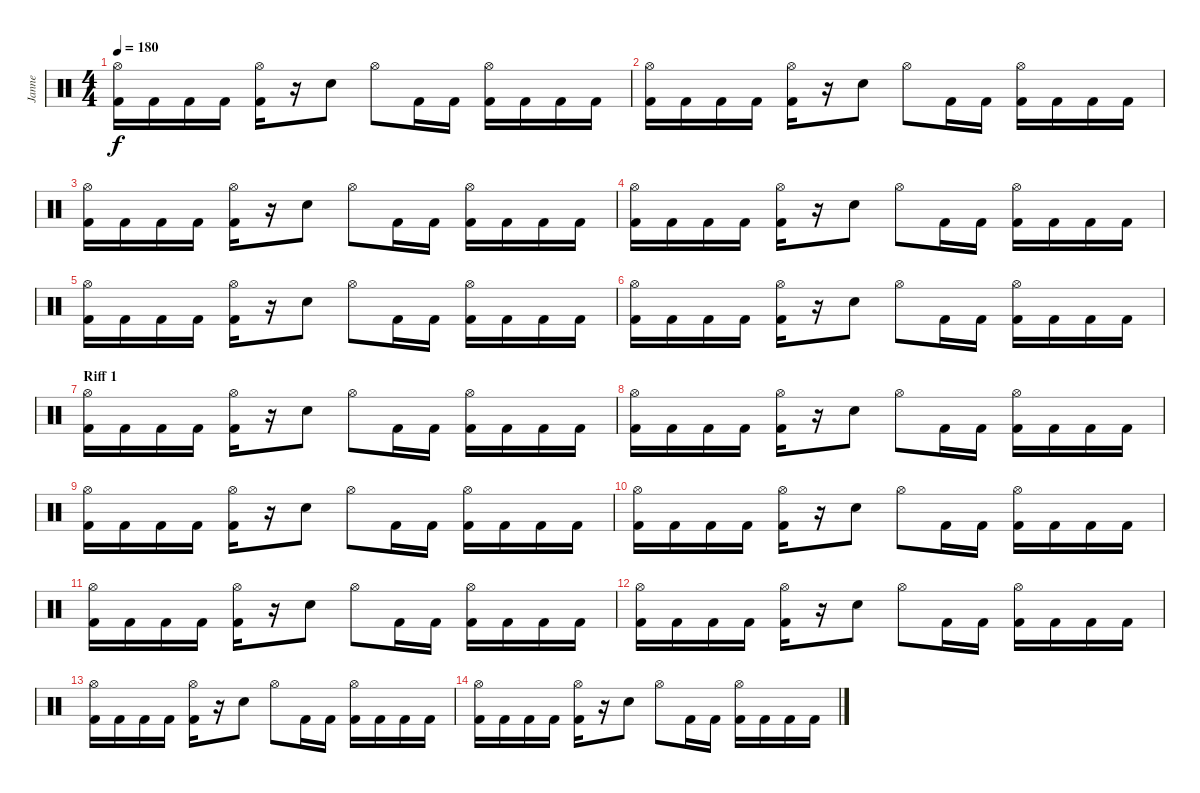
\track ("Janne" "Janne") {instrument percussion}
\staff {score}
\articulation defaults
\ts (4 4)
\tempo 180
\clef neutral
\ks c
("Hi-Hat (open)" "Kick (hit) 2").16{dy f} "Kick (hit) 2".16 "Kick (hit) 2".16 "Kick (hit) 2".16 ("Hi-Hat (open)" "Kick (hit) 2").16 r.16 "Electric Snare (hit)".8 "Hi-Hat (open)".8 "Kick (hit) 2".16 "Kick (hit) 2".16 ("Hi-Hat (open)" "Kick (hit) 2").16 "Kick (hit) 2".16 "Kick (hit) 2".16 "Kick (hit) 2".16 |
("Hi-Hat (open)" "Kick (hit) 2").16 "Kick (hit) 2".16 "Kick (hit) 2".16 "Kick (hit) 2".16 ("Hi-Hat (open)" "Kick (hit) 2").16 r.16 "Electric Snare (hit)".8 "Hi-Hat (open)".8 "Kick (hit) 2".16 "Kick (hit) 2".16 ("Hi-Hat (open)" "Kick (hit) 2").16 "Kick (hit) 2".16 "Kick (hit) 2".16 "Kick (hit) 2".16 |
("Hi-Hat (open)" "Kick (hit) 2").16 "Kick (hit) 2".16 "Kick (hit) 2".16 "Kick (hit) 2".16 ("Hi-Hat (open)" "Kick (hit) 2").16 r.16 "Electric Snare (hit)".8 "Hi-Hat (open)".8 "Kick (hit) 2".16 "Kick (hit) 2".16 ("Hi-Hat (open)" "Kick (hit) 2").16 "Kick (hit) 2".16 "Kick (hit) 2".16 "Kick (hit) 2".16 |
("Hi-Hat (open)" "Kick (hit) 2").16 "Kick (hit) 2".16 "Kick (hit) 2".16 "Kick (hit) 2".16 ("Hi-Hat (open)" "Kick (hit) 2").16 r.16 "Electric Snare (hit)".8 "Hi-Hat (open)".8 "Kick (hit) 2".16 "Kick (hit) 2".16 ("Hi-Hat (open)" "Kick (hit) 2").16 "Kick (hit) 2".16 "Kick (hit) 2".16 "Kick (hit) 2".16 |
("Hi-Hat (open)" "Kick (hit) 2").16 "Kick (hit) 2".16 "Kick (hit) 2".16 "Kick (hit) 2".16 ("Hi-Hat (open)" "Kick (hit) 2").16 r.16 "Electric Snare (hit)".8 "Hi-Hat (open)".8 "Kick (hit) 2".16 "Kick (hit) 2".16 ("Hi-Hat (open)" "Kick (hit) 2").16 "Kick (hit) 2".16 "Kick (hit) 2".16 "Kick (hit) 2".16 |
("Hi-Hat (open)" "Kick (hit) 2").16 "Kick (hit) 2".16 "Kick (hit) 2".16 "Kick (hit) 2".16 ("Hi-Hat (open)" "Kick (hit) 2").16 r.16 "Electric Snare (hit)".8 "Hi-Hat (open)".8 "Kick (hit) 2".16 "Kick (hit) 2".16 ("Hi-Hat (open)" "Kick (hit) 2").16 "Kick (hit) 2".16 "Kick (hit) 2".16 "Kick (hit) 2".16 |
\section ("" "Riff 1")
("Hi-Hat (open)" "Kick (hit) 2").16 "Kick (hit) 2".16 "Kick (hit) 2".16 "Kick (hit) 2".16 ("Hi-Hat (open)" "Kick (hit) 2").16 r.16 "Electric Snare (hit)".8 "Hi-Hat (open)".8 "Kick (hit) 2".16 "Kick (hit) 2".16 ("Hi-Hat (open)" "Kick (hit) 2").16 "Kick (hit) 2".16 "Kick (hit) 2".16 "Kick (hit) 2".16 |
("Hi-Hat (open)" "Kick (hit) 2").16 "Kick (hit) 2".16 "Kick (hit) 2".16 "Kick (hit) 2".16 ("Hi-Hat (open)" "Kick (hit) 2").16 r.16 "Electric Snare (hit)".8 "Hi-Hat (open)".8 "Kick (hit) 2".16 "Kick (hit) 2".16 ("Hi-Hat (open)" "Kick (hit) 2").16 "Kick (hit) 2".16 "Kick (hit) 2".16 "Kick (hit) 2".16 |
("Hi-Hat (open)" "Kick (hit) 2").16 "Kick (hit) 2".16 "Kick (hit) 2".16 "Kick (hit) 2".16 ("Hi-Hat (open)" "Kick (hit) 2").16 r.16 "Electric Snare (hit)".8 "Hi-Hat (open)".8 "Kick (hit) 2".16 "Kick (hit) 2".16 ("Hi-Hat (open)" "Kick (hit) 2").16 "Kick (hit) 2".16 "Kick (hit) 2".16 "Kick (hit) 2".16 |
("Hi-Hat (open)" "Kick (hit) 2").16 "Kick (hit) 2".16 "Kick (hit) 2".16 "Kick (hit) 2".16 ("Hi-Hat (open)" "Kick (hit) 2").16 r.16 "Electric Snare (hit)".8 "Hi-Hat (open)".8 "Kick (hit) 2".16 "Kick (hit) 2".16 ("Hi-Hat (open)" "Kick (hit) 2").16 "Kick (hit) 2".16 "Kick (hit) 2".16 "Kick (hit) 2".16 |
("Hi-Hat (open)" "Kick (hit) 2").16 "Kick (hit) 2".16 "Kick (hit) 2".16 "Kick (hit) 2".16 ("Hi-Hat (open)" "Kick (hit) 2").16 r.16 "Electric Snare (hit)".8 "Hi-Hat (open)".8 "Kick (hit) 2".16 "Kick (hit) 2".16 ("Hi-Hat (open)" "Kick (hit) 2").16 "Kick (hit) 2".16 "Kick (hit) 2".16 "Kick (hit) 2".16 |
("Hi-Hat (open)" "Kick (hit) 2").16 "Kick (hit) 2".16 "Kick (hit) 2".16 "Kick (hit) 2".16 ("Hi-Hat (open)" "Kick (hit) 2").16 r.16 "Electric Snare (hit)".8 "Hi-Hat (open)".8 "Kick (hit) 2".16 "Kick (hit) 2".16 ("Hi-Hat (open)" "Kick (hit) 2").16 "Kick (hit) 2".16 "Kick (hit) 2".16 "Kick (hit) 2".16 |
("Hi-Hat (open)" "Kick (hit) 2").16 "Kick (hit) 2".16 "Kick (hit) 2".16 "Kick (hit) 2".16 ("Hi-Hat (open)" "Kick (hit) 2").16 r.16 "Electric Snare (hit)".8 "Hi-Hat (open)".8 "Kick (hit) 2".16 "Kick (hit) 2".16 ("Hi-Hat (open)" "Kick (hit) 2").16 "Kick (hit) 2".16 "Kick (hit) 2".16 "Kick (hit) 2".16 |
("Hi-Hat (open)" "Kick (hit) 2").16 "Kick (hit) 2".16 "Kick (hit) 2".16 "Kick (hit) 2".16 ("Hi-Hat (open)" "Kick (hit) 2").16 r.16 "Electric Snare (hit)".8 "Hi-Hat (open)".8 "Kick (hit) 2".16 "Kick (hit) 2".16 ("Hi-Hat (open)" "Kick (hit) 2").16 "Kick (hit) 2".16 "Kick (hit) 2".16 "Kick (hit) 2".16
